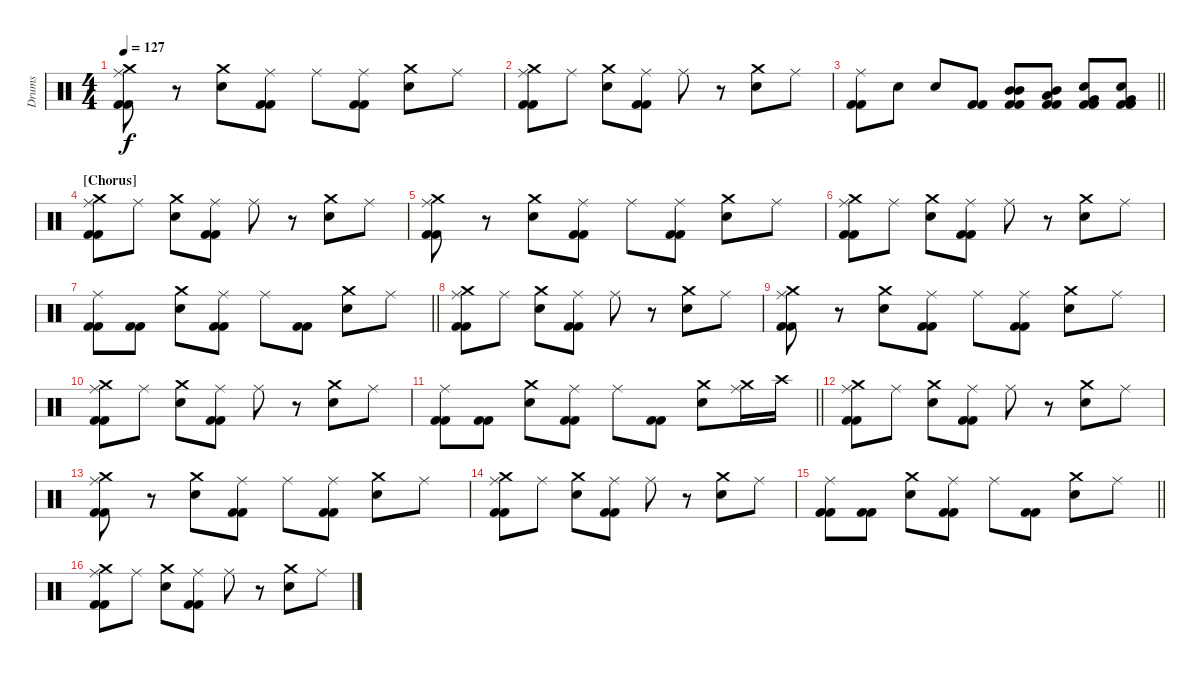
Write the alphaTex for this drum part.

\track ("Drums" "Drums") {instrument percussion}
\staff {score}
\articulation defaults
\ts (4 4)
\tempo 127
\clef neutral
\ks c
("Ride (middle)" "Crash medium (hit)" "Kick (hit) 2" "Kick (hit) 2").8{dy f} r.8 ("Crash medium (hit)" "Electric Snare (hit)").8 ("Ride (middle)" "Kick (hit) 2" "Kick (hit) 2").8 "Ride (middle)".8 ("Ride (middle)" "Kick (hit) 2" "Kick (hit) 2").8 ("Crash medium (hit)" "Electric Snare (hit)").8 "Ride (middle)".8 |
("Ride (middle)" "Crash medium (hit)" "Kick (hit) 2" "Kick (hit) 2").8 "Ride (middle)".8 ("Crash medium (hit)" "Electric Snare (hit)").8 ("Ride (middle)" "Kick (hit) 2" "Kick (hit) 2").8 "Ride (middle)".8 r.8 ("Crash medium (hit)" "Electric Snare (hit)").8 "Ride (middle)".8 |
\barLineRight lightlight
("Ride (middle)" "Kick (hit) 2" "Kick (hit) 2").8 "Electric Snare (hit)".8 "Electric Snare (hit)".8 ("Kick (hit) 2" "Kick (hit) 2").8 ("Mid Tom (hit)" "Mid Tom (hit)" "Kick (hit) 2" "Kick (hit) 2").8 ("Mid Tom (hit)" "Low Tom (hit)" "Kick (hit) 2" "Kick (hit) 2").8 ("Electric Snare (hit)" "Very Low Tom (hit)" "Kick (hit) 2" "Kick (hit) 2").8 ("Electric Snare (hit)" "Very Low Tom (hit)" "Kick (hit) 2" "Kick (hit) 2").8 |
\section ("" "[Chorus]")
("Ride (middle)" "Crash medium (hit)" "Kick (hit) 2" "Kick (hit) 2").8 "Ride (middle)".8 ("Crash medium (hit)" "Electric Snare (hit)").8 ("Ride (middle)" "Kick (hit) 2" "Kick (hit) 2").8 "Ride (middle)".8 r.8 ("Crash medium (hit)" "Electric Snare (hit)").8 "Ride (middle)".8 |
("Ride (middle)" "Crash medium (hit)" "Kick (hit) 2" "Kick (hit) 2").8 r.8 ("Crash medium (hit)" "Electric Snare (hit)").8 ("Ride (middle)" "Kick (hit) 2" "Kick (hit) 2").8 "Ride (middle)".8 ("Ride (middle)" "Kick (hit) 2" "Kick (hit) 2").8 ("Crash medium (hit)" "Electric Snare (hit)").8 "Ride (middle)".8 |
("Ride (middle)" "Crash medium (hit)" "Kick (hit) 2" "Kick (hit) 2").8 "Ride (middle)".8 ("Crash medium (hit)" "Electric Snare (hit)").8 ("Ride (middle)" "Kick (hit) 2" "Kick (hit) 2").8 "Ride (middle)".8 r.8 ("Crash medium (hit)" "Electric Snare (hit)").8 "Ride (middle)".8 |
\barLineRight lightlight
("Ride (middle)" "Kick (hit) 2" "Kick (hit) 2").8 ("Kick (hit) 2" "Kick (hit) 2").8 ("Crash medium (hit)" "Electric Snare (hit)").8 ("Ride (middle)" "Kick (hit) 2" "Kick (hit) 2").8 "Ride (middle)".8 ("Kick (hit) 2" "Kick (hit) 2").8 ("Crash medium (hit)" "Electric Snare (hit)").8 "Ride (middle)".8 |
("Ride (middle)" "Crash medium (hit)" "Kick (hit) 2" "Kick (hit) 2").8 "Ride (middle)".8 ("Crash medium (hit)" "Electric Snare (hit)").8 ("Ride (middle)" "Kick (hit) 2" "Kick (hit) 2").8 "Ride (middle)".8 r.8 ("Crash medium (hit)" "Electric Snare (hit)").8 "Ride (middle)".8 |
("Ride (middle)" "Crash medium (hit)" "Kick (hit) 2" "Kick (hit) 2").8 r.8 ("Crash medium (hit)" "Electric Snare (hit)").8 ("Ride (middle)" "Kick (hit) 2" "Kick (hit) 2").8 "Ride (middle)".8 ("Ride (middle)" "Kick (hit) 2" "Kick (hit) 2").8 ("Crash medium (hit)" "Electric Snare (hit)").8 "Ride (middle)".8 |
("Ride (middle)" "Crash medium (hit)" "Kick (hit) 2" "Kick (hit) 2").8 "Ride (middle)".8 ("Crash medium (hit)" "Electric Snare (hit)").8 ("Ride (middle)" "Kick (hit) 2" "Kick (hit) 2").8 "Ride (middle)".8 r.8 ("Crash medium (hit)" "Electric Snare (hit)").8 "Ride (middle)".8 |
\barLineRight lightlight
("Ride (middle)" "Kick (hit) 2" "Kick (hit) 2").8 ("Kick (hit) 2" "Kick (hit) 2").8 ("Crash medium (hit)" "Electric Snare (hit)").8 ("Ride (middle)" "Kick (hit) 2" "Kick (hit) 2").8 "Ride (middle)".8 ("Kick (hit) 2" "Kick (hit) 2").8 ("Crash medium (hit)" "Electric Snare (hit)").8 ("Ride (middle)" "Crash medium (hit)").16 "Crash high (hit)".16 |
("Ride (middle)" "Crash medium (hit)" "Kick (hit) 2" "Kick (hit) 2").8 "Ride (middle)".8 ("Crash medium (hit)" "Electric Snare (hit)").8 ("Ride (middle)" "Kick (hit) 2" "Kick (hit) 2").8 "Ride (middle)".8 r.8 ("Crash medium (hit)" "Electric Snare (hit)").8 "Ride (middle)".8 |
("Ride (middle)" "Crash medium (hit)" "Kick (hit) 2" "Kick (hit) 2").8 r.8 ("Crash medium (hit)" "Electric Snare (hit)").8 ("Ride (middle)" "Kick (hit) 2" "Kick (hit) 2").8 "Ride (middle)".8 ("Ride (middle)" "Kick (hit) 2" "Kick (hit) 2").8 ("Crash medium (hit)" "Electric Snare (hit)").8 "Ride (middle)".8 |
("Ride (middle)" "Crash medium (hit)" "Kick (hit) 2" "Kick (hit) 2").8 "Ride (middle)".8 ("Crash medium (hit)" "Electric Snare (hit)").8 ("Ride (middle)" "Kick (hit) 2" "Kick (hit) 2").8 "Ride (middle)".8 r.8 ("Crash medium (hit)" "Electric Snare (hit)").8 "Ride (middle)".8 |
\barLineRight lightlight
("Ride (middle)" "Kick (hit) 2" "Kick (hit) 2").8 ("Kick (hit) 2" "Kick (hit) 2").8 ("Crash medium (hit)" "Electric Snare (hit)").8 ("Ride (middle)" "Kick (hit) 2" "Kick (hit) 2").8 "Ride (middle)".8 ("Kick (hit) 2" "Kick (hit) 2").8 ("Crash medium (hit)" "Electric Snare (hit)").8 "Ride (middle)".8 |
("Ride (middle)" "Crash medium (hit)" "Kick (hit) 2" "Kick (hit) 2").8 "Ride (middle)".8 ("Crash medium (hit)" "Electric Snare (hit)").8 ("Ride (middle)" "Kick (hit) 2" "Kick (hit) 2").8 "Ride (middle)".8 r.8 ("Crash medium (hit)" "Electric Snare (hit)").8 "Ride (middle)".8
